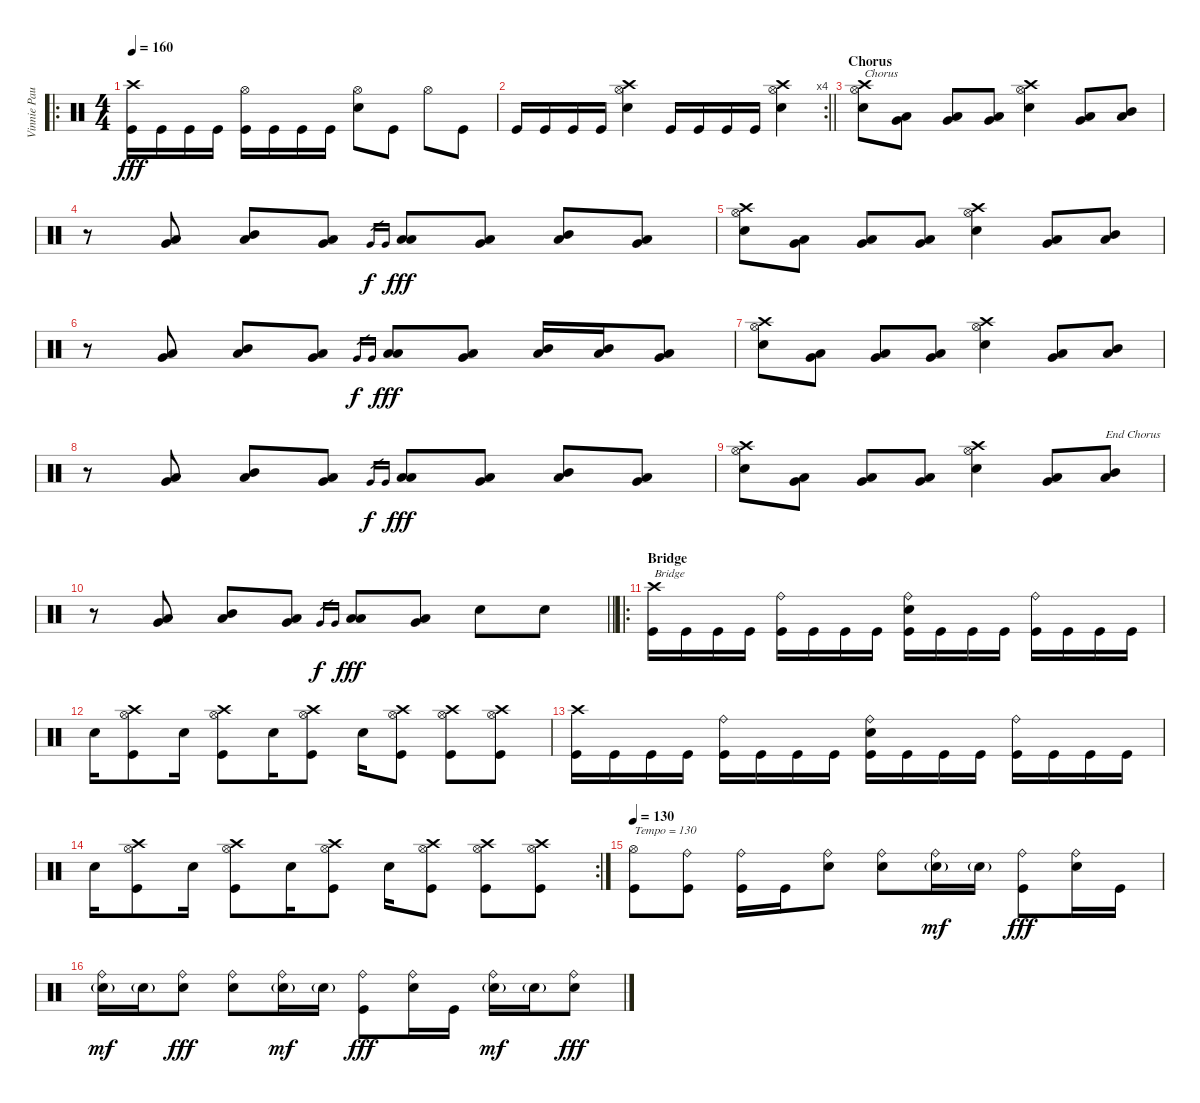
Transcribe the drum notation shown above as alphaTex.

\track ("Vinnie Paul" "Vinnie Pau") {instrument percussion}
\staff {score}
\articulation defaults
\ro
\ts (4 4)
\tempo 160
\clef neutral
\ks c
("Kick (hit)" "Crash high (hit)").16{dy fff} "Kick (hit)".16 "Kick (hit)".16 "Kick (hit)".16 ("Kick (hit)" "Hi-Hat (open)").16 "Kick (hit)".16 "Kick (hit)".16 "Kick (hit)".16 ("Electric Snare (hit)" "Hi-Hat (open)").8 "Kick (hit)".8 "Hi-Hat (open)".8 "Kick (hit)".8 |
\rc 4
\barLineRight lightlight "Kick (hit)".16 "Kick (hit)".16 "Kick (hit)".16 "Kick (hit)".16
("Electric Snare (hit)" "Crash high (hit)" "Hi-Hat (open)").4 "Kick (hit)".16 "Kick (hit)".16 "Kick (hit)".16 "Kick (hit)".16 ("Electric Snare (hit)" "Crash high (hit)" "Hi-Hat (open)").4 |
\section ("" "Chorus")
("Electric Snare (hit)" "Crash high (hit)" "Hi-Hat (open)").8{txt "Chorus"} ("Low Tom (hit)" "Very Low Tom (hit)").8 ("Low Tom (hit)" "Very Low Tom (hit)").8 ("Low Tom (hit)" "Very Low Tom (hit)").8 ("Electric Snare (hit)" "Crash high (hit)" "Hi-Hat (open)").4 ("Low Tom (hit)" "Very Low Tom (hit)").8 ("Mid Tom (hit)" "Low Tom (hit)").8 |
r.8 ("Low Tom (hit)" "Very Low Tom (hit)").8 ("Mid Tom (hit)" "Low Tom (hit)").8 ("Low Tom (hit)" "Very Low Tom (hit)").8 "Very Low Tom (hit)".16{gr dy f} "Very Low Tom (hit)".16{gr} ("Low Tom (hit)" "Low Tom (hit)").8{dy fff} ("Low Tom (hit)" "Very Low Tom (hit)").8 ("Mid Tom (hit)" "Low Tom (hit)").8 ("Low Tom (hit)" "Very Low Tom (hit)").8 |
("Electric Snare (hit)" "Crash high (hit)" "Hi-Hat (open)").8 ("Low Tom (hit)" "Very Low Tom (hit)").8 ("Low Tom (hit)" "Very Low Tom (hit)").8 ("Low Tom (hit)" "Very Low Tom (hit)").8 ("Electric Snare (hit)" "Crash high (hit)" "Hi-Hat (open)").4 ("Low Tom (hit)" "Very Low Tom (hit)").8 ("Mid Tom (hit)" "Low Tom (hit)").8 |
r.8 ("Low Tom (hit)" "Very Low Tom (hit)").8 ("Mid Tom (hit)" "Low Tom (hit)").8 ("Low Tom (hit)" "Very Low Tom (hit)").8 "Very Low Tom (hit)".16{gr dy f} "Very Low Tom (hit)".16{gr} ("Low Tom (hit)" "Low Tom (hit)").8{dy fff} ("Low Tom (hit)" "Very Low Tom (hit)").8 ("Mid Tom (hit)" "Low Tom (hit)").16 ("Mid Tom (hit)" "Low Tom (hit)").16 ("Low Tom (hit)" "Very Low Tom (hit)").8 |
("Electric Snare (hit)" "Crash high (hit)" "Hi-Hat (open)").8 ("Low Tom (hit)" "Very Low Tom (hit)").8 ("Low Tom (hit)" "Very Low Tom (hit)").8 ("Low Tom (hit)" "Very Low Tom (hit)").8 ("Electric Snare (hit)" "Crash high (hit)" "Hi-Hat (open)").4 ("Low Tom (hit)" "Very Low Tom (hit)").8 ("Mid Tom (hit)" "Low Tom (hit)").8 |
r.8 ("Low Tom (hit)" "Very Low Tom (hit)").8 ("Mid Tom (hit)" "Low Tom (hit)").8 ("Low Tom (hit)" "Very Low Tom (hit)").8 "Very Low Tom (hit)".16{gr dy f} "Very Low Tom (hit)".16{gr} ("Low Tom (hit)" "Low Tom (hit)").8{dy fff} ("Low Tom (hit)" "Very Low Tom (hit)").8 ("Mid Tom (hit)" "Low Tom (hit)").8 ("Low Tom (hit)" "Very Low Tom (hit)").8 |
("Electric Snare (hit)" "Crash high (hit)" "Hi-Hat (open)").8 ("Low Tom (hit)" "Very Low Tom (hit)").8 ("Low Tom (hit)" "Very Low Tom (hit)").8 ("Low Tom (hit)" "Very Low Tom (hit)").8 ("Electric Snare (hit)" "Crash high (hit)" "Hi-Hat (open)").4 ("Low Tom (hit)" "Very Low Tom (hit)").8 ("Mid Tom (hit)" "Low Tom (hit)").8{txt "End Chorus"} |
\barLineRight lightlight
r.8 ("Low Tom (hit)" "Very Low Tom (hit)").8 ("Mid Tom (hit)" "Low Tom (hit)").8 ("Low Tom (hit)" "Very Low Tom (hit)").8 "Very Low Tom (hit)".16{gr dy f} "Very Low Tom (hit)".16{gr} ("Low Tom (hit)" "Low Tom (hit)").8{dy fff} ("Low Tom (hit)" "Very Low Tom (hit)").8 "Electric Snare (hit)".8 "Electric Snare (hit)".8 |
\ro
\section ("" "Bridge")
("Kick (hit)" "Crash high (hit)").16{txt "Bridge"} "Kick (hit)".16 "Kick (hit)".16 "Kick (hit)".16 ("Kick (hit)" "Ride (bell)").16 "Kick (hit)".16 "Kick (hit)".16 "Kick (hit)".16 ("Electric Snare (hit)" "Kick (hit)" "Ride (bell)").16 "Kick (hit)".16 "Kick (hit)".16 "Kick (hit)".16 ("Kick (hit)" "Ride (bell)").16 "Kick (hit)".16 "Kick (hit)".16 "Kick (hit)".16 |
"Electric Snare (hit)".16 ("Kick (hit)" "Crash high (hit)" "Hi-Hat (open)").8 "Electric Snare (hit)".16 ("Kick (hit)" "Crash high (hit)" "Hi-Hat (open)").8 "Electric Snare (hit)".16 ("Kick (hit)" "Crash high (hit)" "Hi-Hat (open)").8 "Electric Snare (hit)".16 ("Kick (hit)" "Crash high (hit)" "Hi-Hat (open)").8 ("Kick (hit)" "Crash high (hit)" "Hi-Hat (open)").8 ("Kick (hit)" "Crash high (hit)" "Hi-Hat (open)").8 |
("Kick (hit)" "Crash high (hit)").16 "Kick (hit)".16 "Kick (hit)".16 "Kick (hit)".16 ("Kick (hit)" "Ride (bell)").16 "Kick (hit)".16 "Kick (hit)".16 "Kick (hit)".16 ("Electric Snare (hit)" "Kick (hit)" "Ride (bell)").16 "Kick (hit)".16 "Kick (hit)".16 "Kick (hit)".16 ("Kick (hit)" "Ride (bell)").16 "Kick (hit)".16 "Kick (hit)".16 "Kick (hit)".16 |
\rc 2 "Electric Snare (hit)".16
("Kick (hit)" "Crash high (hit)" "Hi-Hat (open)").8 "Electric Snare (hit)".16 ("Kick (hit)" "Crash high (hit)" "Hi-Hat (open)").8 "Electric Snare (hit)".16 ("Kick (hit)" "Crash high (hit)" "Hi-Hat (open)").8 "Electric Snare (hit)".16 ("Kick (hit)" "Crash high (hit)" "Hi-Hat (open)").8 ("Kick (hit)" "Crash high (hit)" "Hi-Hat (open)").8 ("Kick (hit)" "Crash high (hit)" "Hi-Hat (open)").8 |
\tempo 130
("Kick (hit)" "Hi-Hat (open)").8{txt "Tempo = 130"} ("Kick (hit)" "Ride (bell)").8 ("Kick (hit)" "Ride (bell)").16 "Kick (hit)".16 ("Electric Snare (hit)" "Ride (bell)").8 ("Electric Snare (hit)" "Ride (bell)").8 ("Electric Snare (hit)"{g} "Ride (bell)").16{dy mf} "Electric Snare (hit)"{g}.16 ("Kick (hit)" "Ride (bell)").8{dy fff} ("Electric Snare (hit)" "Ride (bell)").16 "Kick (hit)".16 |
("Electric Snare (hit)"{g} "Ride (bell)").16{dy mf} "Electric Snare (hit)"{g}.16 ("Electric Snare (hit)" "Ride (bell)").8{dy fff} ("Electric Snare (hit)" "Ride (bell)").8 ("Electric Snare (hit)"{g} "Ride (bell)").16{dy mf} "Electric Snare (hit)"{g}.16 ("Kick (hit)" "Ride (bell)").8{dy fff} ("Electric Snare (hit)" "Ride (bell)").16 "Kick (hit)".16 ("Electric Snare (hit)"{g} "Ride (bell)").16{dy mf} "Electric Snare (hit)"{g}.16 ("Electric Snare (hit)" "Ride (bell)").8{dy fff}
